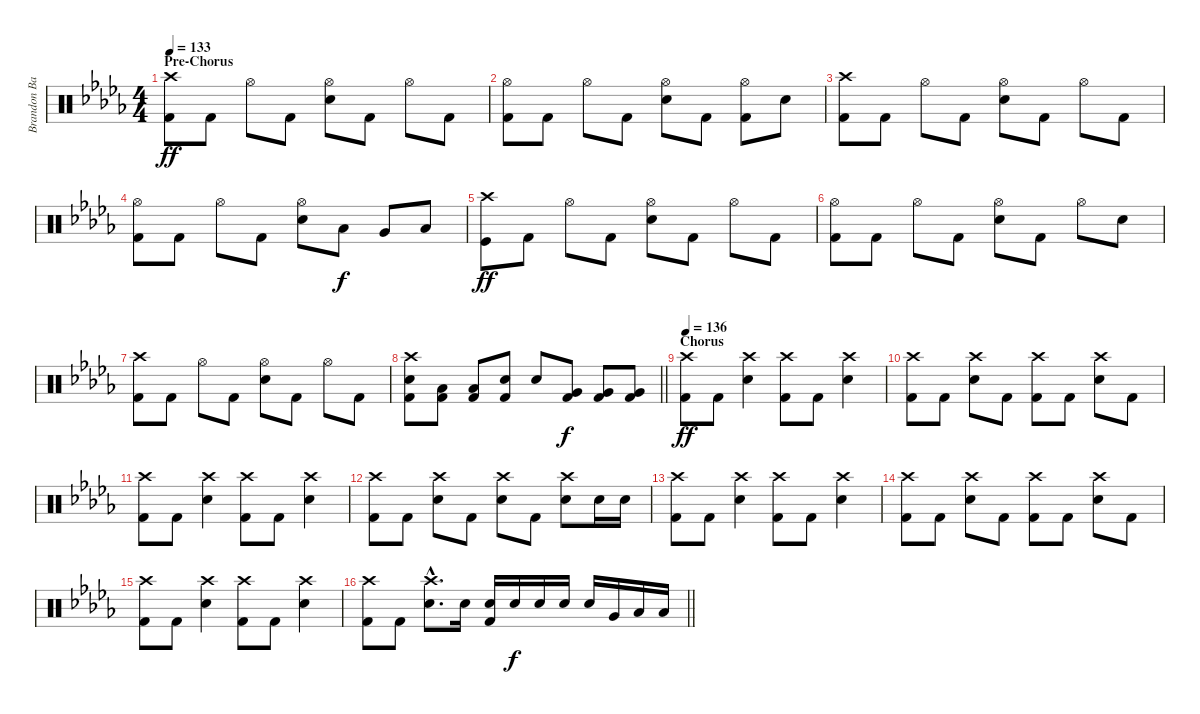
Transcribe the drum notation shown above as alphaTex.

\track ("Brandon Barnes - Drums" "Brandon Ba") {instrument percussion}
\staff {score}
\articulation defaults
\ts (4 4)
\section ("" "Pre-Chorus")
\tempo 133
\clef neutral
\ks db
("Crash high (hit)" "Kick (hit) 2").8{dy ff} "Kick (hit) 2".8 "Hi-Hat (open)".8 "Kick (hit) 2".8 ("Snare (hit) 2" "Hi-Hat (open)").8 "Kick (hit) 2".8 "Hi-Hat (open)".8 "Kick (hit) 2".8 |
("Hi-Hat (open)" "Kick (hit) 2").8 "Kick (hit) 2".8 "Hi-Hat (open)".8 "Kick (hit) 2".8 ("Snare (hit) 2" "Hi-Hat (open)").8 "Kick (hit) 2".8 ("Hi-Hat (open)" "Kick (hit) 2").8 "Snare (hit) 2".8 |
("Crash high (hit)" "Kick (hit) 2").8 "Kick (hit) 2".8 "Hi-Hat (open)".8 "Kick (hit) 2".8 ("Snare (hit) 2" "Hi-Hat (open)").8 "Kick (hit) 2".8 "Hi-Hat (open)".8 "Kick (hit) 2".8 |
("Hi-Hat (open)" "Kick (hit) 2").8 "Kick (hit) 2".8 "Hi-Hat (open)".8 "Kick (hit) 2".8 ("Snare (hit) 2" "Hi-Hat (open)").8 "Low Tom (hit)".8{dy f} "Very Low Tom (hit)".8 "Low Floor Tom (hit)".8 |
("Crash high (hit)" "Kick (hit)").8{dy ff} "Kick (hit) 2".8 "Hi-Hat (open)".8 "Kick (hit) 2".8 ("Snare (hit) 2" "Hi-Hat (open)").8 "Kick (hit) 2".8 "Hi-Hat (open)".8 "Kick (hit) 2".8 |
("Hi-Hat (open)" "Kick (hit) 2").8 "Kick (hit) 2".8 "Hi-Hat (open)".8 "Kick (hit) 2".8 ("Snare (hit) 2" "Hi-Hat (open)").8 "Kick (hit) 2".8 "Hi-Hat (open)".8 "Snare (hit) 2".8 |
("Crash high (hit)" "Kick (hit) 2").8 "Kick (hit) 2".8 "Hi-Hat (open)".8 "Kick (hit) 2".8 ("Snare (hit) 2" "Hi-Hat (open)").8 "Kick (hit) 2".8 "Hi-Hat (open)".8 "Kick (hit) 2".8 |
\barLineRight lightlight
("Snare (hit) 2" "Kick (hit) 2" "Crash high (hit)").8 ("Low Tom (hit)" "Kick (hit) 2").8 ("Low Tom (hit)" "Kick (hit) 2").8 ("Kick (hit) 2" "Snare (hit) 2").8 "Snare (hit) 2".8 ("Very Low Tom (hit)" "Kick (hit) 2").8{dy f} ("Very Low Tom (hit)" "Kick (hit) 2").8 ("Very Low Tom (hit)" "Kick (hit) 2").8 |
\section ("" "Chorus")
\tempo 136
("Crash high (hit)" "Kick (hit) 2").8{dy ff} "Kick (hit) 2".8 ("Snare (hit) 2" "Crash high (hit)").4 ("Kick (hit) 2" "Crash high (hit)").8 "Kick (hit) 2".8 ("Snare (hit) 2" "Crash high (hit)").4 |
("Kick (hit) 2" "Crash high (hit)").8 "Kick (hit) 2".8 ("Snare (hit) 2" "Crash high (hit)").8 "Kick (hit) 2".8 ("Kick (hit) 2" "Crash high (hit)").8 "Kick (hit) 2".8 ("Snare (hit) 2" "Crash high (hit)").8 "Kick (hit) 2".8 |
("Kick (hit) 2" "Crash high (hit)").8 "Kick (hit) 2".8 ("Snare (hit) 2" "Crash high (hit)").4 ("Kick (hit) 2" "Crash high (hit)").8 "Kick (hit) 2".8 ("Snare (hit) 2" "Crash high (hit)").4 |
("Kick (hit) 2" "Crash high (hit)").8 "Kick (hit) 2".8 ("Snare (hit) 2" "Crash high (hit)").8 "Kick (hit) 2".8 ("Snare (hit) 2" "Crash high (hit)").8 "Kick (hit) 2".8 ("Snare (hit) 2" "Crash high (hit)").8 "Snare (hit) 2".16 "Snare (hit) 2".16 |
("Crash high (hit)" "Kick (hit) 2").8 "Kick (hit) 2".8 ("Snare (hit) 2" "Crash high (hit)").4 ("Kick (hit) 2" "Crash high (hit)").8 "Kick (hit) 2".8 ("Snare (hit) 2" "Crash high (hit)").4 |
("Kick (hit) 2" "Crash high (hit)").8 "Kick (hit) 2".8 ("Snare (hit) 2" "Crash high (hit)").8 "Kick (hit) 2".8 ("Kick (hit) 2" "Crash high (hit)").8 "Kick (hit) 2".8 ("Snare (hit) 2" "Crash high (hit)").8 "Kick (hit) 2".8 |
("Kick (hit) 2" "Crash high (hit)").8 "Kick (hit) 2".8 ("Snare (hit) 2" "Crash high (hit)").4 ("Kick (hit) 2" "Crash high (hit)").8 "Kick (hit) 2".8 ("Snare (hit) 2" "Crash high (hit)").4 |
\barLineRight lightlight
("Kick (hit) 2" "Crash high (hit)").8 "Kick (hit) 2".8 ("Snare (hit) 2"{hac} "Crash high (hit)"{hac}).8{d} "Snare (hit) 2".16 ("Kick (hit) 2" "Snare (hit) 2").16 "Snare (hit) 2".16{dy f} "Snare (hit) 2".16 "Snare (hit) 2".16 "Snare (hit) 2".16 "Very Low Tom (hit)".16 "Low Tom (hit)".16 "Low Floor Tom (hit)".16
